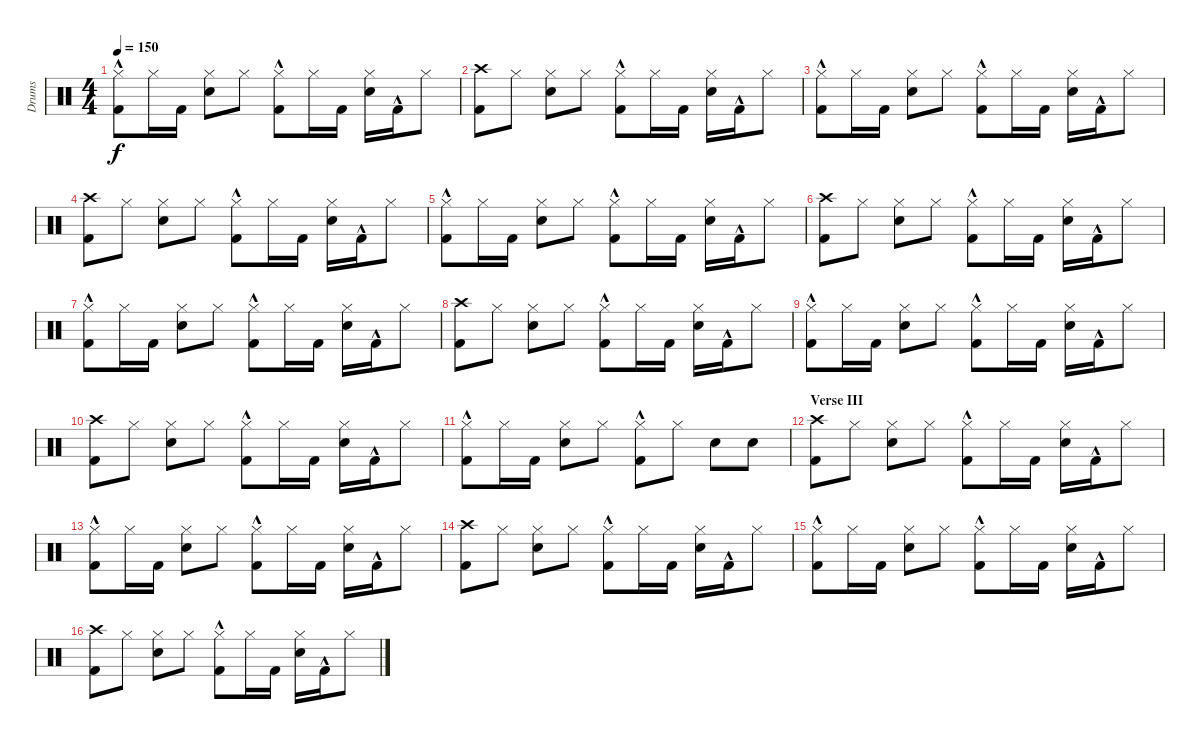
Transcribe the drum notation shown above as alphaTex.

\track ("Drums" "Drums") {instrument percussion}
\staff {score}
\articulation defaults
\ts (4 4)
\tempo 150
\clef neutral
\ks c
("Hi-Hat (closed)" "Kick (hit) 2"{hac}).8{dy f} "Hi-Hat (closed)".16 "Kick (hit) 2".16 ("Hi-Hat (closed)" "Electric Snare (hit)").8 "Hi-Hat (closed)".8 ("Hi-Hat (closed)" "Kick (hit) 2"{hac}).8 "Hi-Hat (closed)".16 "Kick (hit) 2".16 ("Hi-Hat (closed)" "Electric Snare (hit)").16 "Kick (hit) 2"{hac}.16 "Hi-Hat (closed)".8 |
("Crash high (hit)" "Kick (hit) 2").8 "Hi-Hat (closed)".8 ("Hi-Hat (closed)" "Electric Snare (hit)").8 "Hi-Hat (closed)".8 ("Hi-Hat (closed)" "Kick (hit) 2"{hac}).8 "Hi-Hat (closed)".16 "Kick (hit) 2".16 ("Hi-Hat (closed)" "Electric Snare (hit)").16 "Kick (hit) 2"{hac}.16 "Hi-Hat (closed)".8 |
("Hi-Hat (closed)" "Kick (hit) 2"{hac}).8 "Hi-Hat (closed)".16 "Kick (hit) 2".16 ("Hi-Hat (closed)" "Electric Snare (hit)").8 "Hi-Hat (closed)".8 ("Hi-Hat (closed)" "Kick (hit) 2"{hac}).8 "Hi-Hat (closed)".16 "Kick (hit) 2".16 ("Hi-Hat (closed)" "Electric Snare (hit)").16 "Kick (hit) 2"{hac}.16 "Hi-Hat (closed)".8 |
("Crash high (hit)" "Kick (hit) 2").8 "Hi-Hat (closed)".8 ("Hi-Hat (closed)" "Electric Snare (hit)").8 "Hi-Hat (closed)".8 ("Hi-Hat (closed)" "Kick (hit) 2"{hac}).8 "Hi-Hat (closed)".16 "Kick (hit) 2".16 ("Hi-Hat (closed)" "Electric Snare (hit)").16 "Kick (hit) 2"{hac}.16 "Hi-Hat (closed)".8 |
("Hi-Hat (closed)" "Kick (hit) 2"{hac}).8 "Hi-Hat (closed)".16 "Kick (hit) 2".16 ("Hi-Hat (closed)" "Electric Snare (hit)").8 "Hi-Hat (closed)".8 ("Hi-Hat (closed)" "Kick (hit) 2"{hac}).8 "Hi-Hat (closed)".16 "Kick (hit) 2".16 ("Hi-Hat (closed)" "Electric Snare (hit)").16 "Kick (hit) 2"{hac}.16 "Hi-Hat (closed)".8 |
("Crash high (hit)" "Kick (hit) 2").8 "Hi-Hat (closed)".8 ("Hi-Hat (closed)" "Electric Snare (hit)").8 "Hi-Hat (closed)".8 ("Hi-Hat (closed)" "Kick (hit) 2"{hac}).8 "Hi-Hat (closed)".16 "Kick (hit) 2".16 ("Hi-Hat (closed)" "Electric Snare (hit)").16 "Kick (hit) 2"{hac}.16 "Hi-Hat (closed)".8 |
("Hi-Hat (closed)" "Kick (hit) 2"{hac}).8 "Hi-Hat (closed)".16 "Kick (hit) 2".16 ("Hi-Hat (closed)" "Electric Snare (hit)").8 "Hi-Hat (closed)".8 ("Hi-Hat (closed)" "Kick (hit) 2"{hac}).8 "Hi-Hat (closed)".16 "Kick (hit) 2".16 ("Hi-Hat (closed)" "Electric Snare (hit)").16 "Kick (hit) 2"{hac}.16 "Hi-Hat (closed)".8 |
("Crash high (hit)" "Kick (hit) 2").8 "Hi-Hat (closed)".8 ("Hi-Hat (closed)" "Electric Snare (hit)").8 "Hi-Hat (closed)".8 ("Hi-Hat (closed)" "Kick (hit) 2"{hac}).8 "Hi-Hat (closed)".16 "Kick (hit) 2".16 ("Hi-Hat (closed)" "Electric Snare (hit)").16 "Kick (hit) 2"{hac}.16 "Hi-Hat (closed)".8 |
("Hi-Hat (closed)" "Kick (hit) 2"{hac}).8 "Hi-Hat (closed)".16 "Kick (hit) 2".16 ("Hi-Hat (closed)" "Electric Snare (hit)").8 "Hi-Hat (closed)".8 ("Hi-Hat (closed)" "Kick (hit) 2"{hac}).8 "Hi-Hat (closed)".16 "Kick (hit) 2".16 ("Hi-Hat (closed)" "Electric Snare (hit)").16 "Kick (hit) 2"{hac}.16 "Hi-Hat (closed)".8 |
("Crash high (hit)" "Kick (hit) 2").8 "Hi-Hat (closed)".8 ("Hi-Hat (closed)" "Electric Snare (hit)").8 "Hi-Hat (closed)".8 ("Hi-Hat (closed)" "Kick (hit) 2"{hac}).8 "Hi-Hat (closed)".16 "Kick (hit) 2".16 ("Hi-Hat (closed)" "Electric Snare (hit)").16 "Kick (hit) 2"{hac}.16 "Hi-Hat (closed)".8 |
("Hi-Hat (closed)" "Kick (hit) 2"{hac}).8 "Hi-Hat (closed)".16 "Kick (hit) 2".16 ("Hi-Hat (closed)" "Electric Snare (hit)").8 "Hi-Hat (closed)".8 ("Hi-Hat (closed)" "Kick (hit) 2"{hac}).8 "Hi-Hat (closed)".8 "Electric Snare (hit)".8 "Electric Snare (hit)".8 |
\section ("" "Verse III")
("Crash high (hit)" "Kick (hit) 2").8 "Hi-Hat (closed)".8 ("Hi-Hat (closed)" "Electric Snare (hit)").8 "Hi-Hat (closed)".8 ("Hi-Hat (closed)" "Kick (hit) 2"{hac}).8 "Hi-Hat (closed)".16 "Kick (hit) 2".16 ("Hi-Hat (closed)" "Electric Snare (hit)").16 "Kick (hit) 2"{hac}.16 "Hi-Hat (closed)".8 |
("Hi-Hat (closed)" "Kick (hit) 2"{hac}).8 "Hi-Hat (closed)".16 "Kick (hit) 2".16 ("Hi-Hat (closed)" "Electric Snare (hit)").8 "Hi-Hat (closed)".8 ("Hi-Hat (closed)" "Kick (hit) 2"{hac}).8 "Hi-Hat (closed)".16 "Kick (hit) 2".16 ("Hi-Hat (closed)" "Electric Snare (hit)").16 "Kick (hit) 2"{hac}.16 "Hi-Hat (closed)".8 |
("Crash high (hit)" "Kick (hit) 2").8 "Hi-Hat (closed)".8 ("Hi-Hat (closed)" "Electric Snare (hit)").8 "Hi-Hat (closed)".8 ("Hi-Hat (closed)" "Kick (hit) 2"{hac}).8 "Hi-Hat (closed)".16 "Kick (hit) 2".16 ("Hi-Hat (closed)" "Electric Snare (hit)").16 "Kick (hit) 2"{hac}.16 "Hi-Hat (closed)".8 |
("Hi-Hat (closed)" "Kick (hit) 2"{hac}).8 "Hi-Hat (closed)".16 "Kick (hit) 2".16 ("Hi-Hat (closed)" "Electric Snare (hit)").8 "Hi-Hat (closed)".8 ("Hi-Hat (closed)" "Kick (hit) 2"{hac}).8 "Hi-Hat (closed)".16 "Kick (hit) 2".16 ("Hi-Hat (closed)" "Electric Snare (hit)").16 "Kick (hit) 2"{hac}.16 "Hi-Hat (closed)".8 |
("Crash high (hit)" "Kick (hit) 2").8 "Hi-Hat (closed)".8 ("Hi-Hat (closed)" "Electric Snare (hit)").8 "Hi-Hat (closed)".8 ("Hi-Hat (closed)" "Kick (hit) 2"{hac}).8 "Hi-Hat (closed)".16 "Kick (hit) 2".16 ("Hi-Hat (closed)" "Electric Snare (hit)").16 "Kick (hit) 2"{hac}.16 "Hi-Hat (closed)".8
